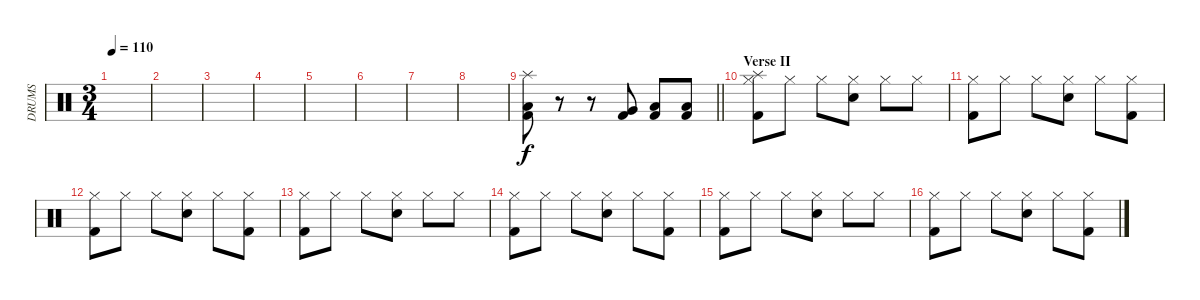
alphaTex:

\track ("DRUMS" "DRUMS") {instrument percussion}
\staff {score}
\articulation defaults
\ts (3 4)
\tempo 110
\clef neutral
\ks c
|
|
|
|
|
|
|
|
\barLineRight lightlight
("Kick (hit) 2" "Low Floor Tom (hit)" "Splash (hit)").8 r.8 r.8 ("Kick (hit) 2" "Very Low Tom (hit)").8 ("Kick (hit) 2" "Low Floor Tom (hit)").8 ("Kick (hit) 2" "Low Floor Tom (hit)").8 |
\section ("" "Verse II")
("Kick (hit) 2" "Hi-Hat (closed)" "Splash (hit)").8 "Hi-Hat (closed)".8 "Hi-Hat (closed)".8 ("Electric Snare (hit)" "Hi-Hat (closed)").8 "Hi-Hat (closed)".8 "Hi-Hat (closed)".8 |
("Kick (hit) 2" "Hi-Hat (closed)").8 "Hi-Hat (closed)".8 "Hi-Hat (closed)".8 ("Electric Snare (hit)" "Hi-Hat (closed)").8 "Hi-Hat (closed)".8 ("Kick (hit) 2" "Hi-Hat (closed)").8 |
("Kick (hit) 2" "Hi-Hat (closed)").8 "Hi-Hat (closed)".8 "Hi-Hat (closed)".8 ("Electric Snare (hit)" "Hi-Hat (closed)").8 "Hi-Hat (closed)".8 ("Kick (hit) 2" "Hi-Hat (closed)").8 |
("Kick (hit) 2" "Hi-Hat (closed)").8 "Hi-Hat (closed)".8 "Hi-Hat (closed)".8 ("Electric Snare (hit)" "Hi-Hat (closed)").8 "Hi-Hat (closed)".8 "Hi-Hat (closed)".8 |
("Kick (hit) 2" "Hi-Hat (closed)").8 "Hi-Hat (closed)".8 "Hi-Hat (closed)".8 ("Electric Snare (hit)" "Hi-Hat (closed)").8 "Hi-Hat (closed)".8 ("Kick (hit) 2" "Hi-Hat (closed)").8 |
("Kick (hit) 2" "Hi-Hat (closed)").8 "Hi-Hat (closed)".8 "Hi-Hat (closed)".8 ("Electric Snare (hit)" "Hi-Hat (closed)").8 "Hi-Hat (closed)".8 "Hi-Hat (closed)".8 |
("Kick (hit) 2" "Hi-Hat (closed)").8 "Hi-Hat (closed)".8 "Hi-Hat (closed)".8 ("Electric Snare (hit)" "Hi-Hat (closed)").8 "Hi-Hat (closed)".8 ("Kick (hit) 2" "Hi-Hat (closed)").8
